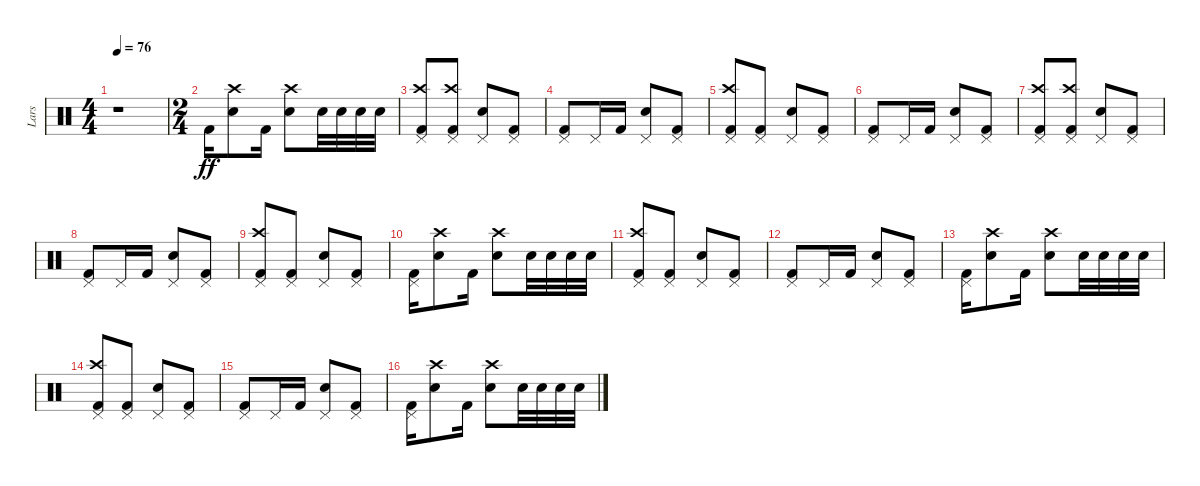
\track ("Lars" "Lars") {instrument percussion}
\staff {score}
\articulation defaults
\ts (4 4)
\tempo 76
\clef neutral
\ks c
r.1{dy ff} |
\ts (2 4)
"Kick (hit) 2".16 ("Crash high (hit)" "Snare (hit) 2").8 "Kick (hit) 2".16 ("Crash high (hit)" "Snare (hit) 2").8 "Snare (hit) 2".32 "Snare (hit) 2".32 "Snare (hit) 2".32 "Snare (hit) 2".32 |
("Pedal Hi-Hat (hit)" "Crash high (hit)" "Kick (hit) 2").8 ("Pedal Hi-Hat (hit)" "Crash high (hit)" "Kick (hit) 2").8 ("Pedal Hi-Hat (hit)" "Snare (hit) 2").8 ("Pedal Hi-Hat (hit)" "Kick (hit) 2").8 |
("Pedal Hi-Hat (hit)" "Kick (hit) 2").8 "Pedal Hi-Hat (hit)".16 "Kick (hit) 2".16 ("Pedal Hi-Hat (hit)" "Snare (hit) 2").8 ("Pedal Hi-Hat (hit)" "Kick (hit) 2").8 |
("Pedal Hi-Hat (hit)" "Crash high (hit)" "Kick (hit) 2").8 ("Pedal Hi-Hat (hit)" "Kick (hit) 2").8 ("Pedal Hi-Hat (hit)" "Snare (hit) 2").8 ("Pedal Hi-Hat (hit)" "Kick (hit) 2").8 |
("Pedal Hi-Hat (hit)" "Kick (hit) 2").8 "Pedal Hi-Hat (hit)".16 "Kick (hit) 2".16 ("Pedal Hi-Hat (hit)" "Snare (hit) 2").8 ("Pedal Hi-Hat (hit)" "Kick (hit) 2").8 |
("Pedal Hi-Hat (hit)" "Crash high (hit)" "Kick (hit) 2").8 ("Pedal Hi-Hat (hit)" "Crash high (hit)" "Kick (hit) 2").8 ("Pedal Hi-Hat (hit)" "Snare (hit) 2").8 ("Pedal Hi-Hat (hit)" "Kick (hit) 2").8 |
("Pedal Hi-Hat (hit)" "Kick (hit) 2").8 "Pedal Hi-Hat (hit)".16 "Kick (hit) 2".16 ("Pedal Hi-Hat (hit)" "Snare (hit) 2").8 ("Pedal Hi-Hat (hit)" "Kick (hit) 2").8 |
("Pedal Hi-Hat (hit)" "Crash high (hit)" "Kick (hit) 2").8 ("Pedal Hi-Hat (hit)" "Kick (hit) 2").8 ("Pedal Hi-Hat (hit)" "Snare (hit) 2").8 ("Pedal Hi-Hat (hit)" "Kick (hit) 2").8 |
("Pedal Hi-Hat (hit)" "Kick (hit) 2").16 ("Crash high (hit)" "Snare (hit) 2").8 "Kick (hit) 2".16 ("Crash high (hit)" "Snare (hit) 2").8 "Snare (hit) 2".32 "Snare (hit) 2".32 "Snare (hit) 2".32 "Snare (hit) 2".32 |
("Pedal Hi-Hat (hit)" "Crash high (hit)" "Kick (hit) 2").8 ("Pedal Hi-Hat (hit)" "Kick (hit) 2").8 ("Pedal Hi-Hat (hit)" "Snare (hit) 2").8 ("Pedal Hi-Hat (hit)" "Kick (hit) 2").8 |
("Pedal Hi-Hat (hit)" "Kick (hit) 2").8 "Pedal Hi-Hat (hit)".16 "Kick (hit) 2".16 ("Pedal Hi-Hat (hit)" "Snare (hit) 2").8 ("Pedal Hi-Hat (hit)" "Kick (hit) 2").8 |
("Pedal Hi-Hat (hit)" "Kick (hit) 2").16 ("Crash high (hit)" "Snare (hit) 2").8 "Kick (hit) 2".16 ("Crash high (hit)" "Snare (hit) 2").8 "Snare (hit) 2".32 "Snare (hit) 2".32 "Snare (hit) 2".32 "Snare (hit) 2".32 |
("Pedal Hi-Hat (hit)" "Crash high (hit)" "Kick (hit) 2").8 ("Pedal Hi-Hat (hit)" "Kick (hit) 2").8 ("Pedal Hi-Hat (hit)" "Snare (hit) 2").8 ("Pedal Hi-Hat (hit)" "Kick (hit) 2").8 |
("Pedal Hi-Hat (hit)" "Kick (hit) 2").8 "Pedal Hi-Hat (hit)".16 "Kick (hit) 2".16 ("Pedal Hi-Hat (hit)" "Snare (hit) 2").8 ("Pedal Hi-Hat (hit)" "Kick (hit) 2").8 |
("Pedal Hi-Hat (hit)" "Kick (hit) 2").16 ("Crash high (hit)" "Snare (hit) 2").8 "Kick (hit) 2".16 ("Crash high (hit)" "Snare (hit) 2").8 "Snare (hit) 2".32 "Snare (hit) 2".32 "Snare (hit) 2".32 "Snare (hit) 2".32
